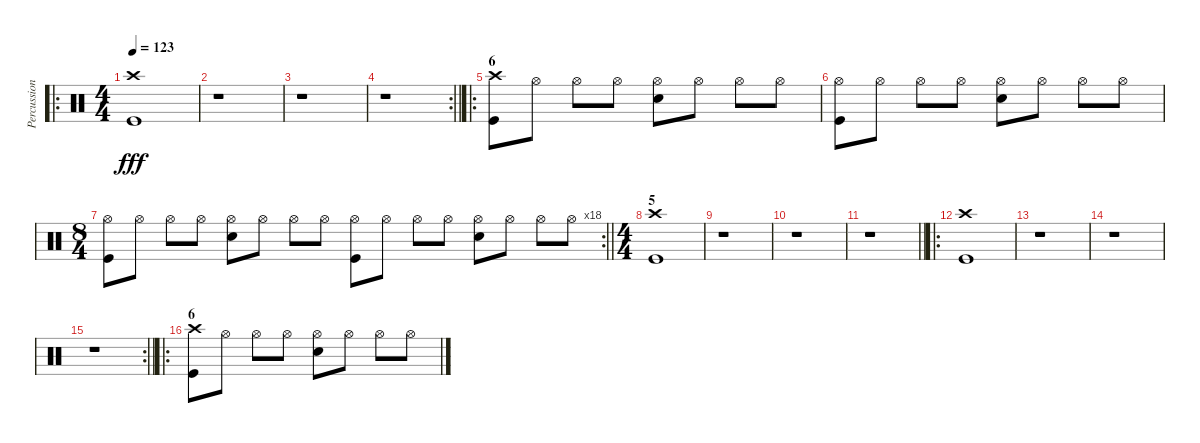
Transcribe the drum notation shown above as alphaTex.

\track ("Percussion" "Percussion") {instrument percussion}
\staff {score}
\articulation defaults
\ro
\ts (4 4)
\tempo 123
\clef neutral
\ks c
("Crash high (hit)" "Kick (hit)").1{dy fff} |
r.1 |
r.1 |
\rc 2
\barLineRight lightlight
r.1 |
\ro
\section ("" "6")
("Crash high (hit)" "Kick (hit)").8 "Hi-Hat (open)".8 "Hi-Hat (open)".8 "Hi-Hat (open)".8 ("Hi-Hat (open)" "Snare (hit) 2").8 "Hi-Hat (open)".8 "Hi-Hat (open)".8 "Hi-Hat (open)".8 |
("Hi-Hat (open)" "Kick (hit)").8 "Hi-Hat (open)".8 "Hi-Hat (open)".8 "Hi-Hat (open)".8 ("Hi-Hat (open)" "Snare (hit) 2").8 "Hi-Hat (open)".8 "Hi-Hat (open)".8 "Hi-Hat (open)".8 |
\rc 18
\ts (8 4)
\barLineRight lightlight
("Hi-Hat (open)" "Kick (hit)").8 "Hi-Hat (open)".8 "Hi-Hat (open)".8 "Hi-Hat (open)".8 ("Hi-Hat (open)" "Snare (hit) 2").8 "Hi-Hat (open)".8 "Hi-Hat (open)".8 "Hi-Hat (open)".8 ("Hi-Hat (open)" "Kick (hit)").8 "Hi-Hat (open)".8 "Hi-Hat (open)".8 "Hi-Hat (open)".8 ("Hi-Hat (open)" "Snare (hit) 2").8 "Hi-Hat (open)".8 "Hi-Hat (open)".8 "Hi-Hat (open)".8 |
\ts (4 4)
\section ("" "5")
("Crash high (hit)" "Kick (hit)").1 |
r.1 |
r.1 |
\barLineRight lightlight
r.1 |
\ro
("Crash high (hit)" "Kick (hit)").1 |
r.1 |
r.1 |
\rc 2
\barLineRight lightlight
r.1 |
\ro
\section ("" "6")
("Crash high (hit)" "Kick (hit)").8 "Hi-Hat (open)".8 "Hi-Hat (open)".8 "Hi-Hat (open)".8 ("Hi-Hat (open)" "Snare (hit) 2").8 "Hi-Hat (open)".8 "Hi-Hat (open)".8 "Hi-Hat (open)".8
